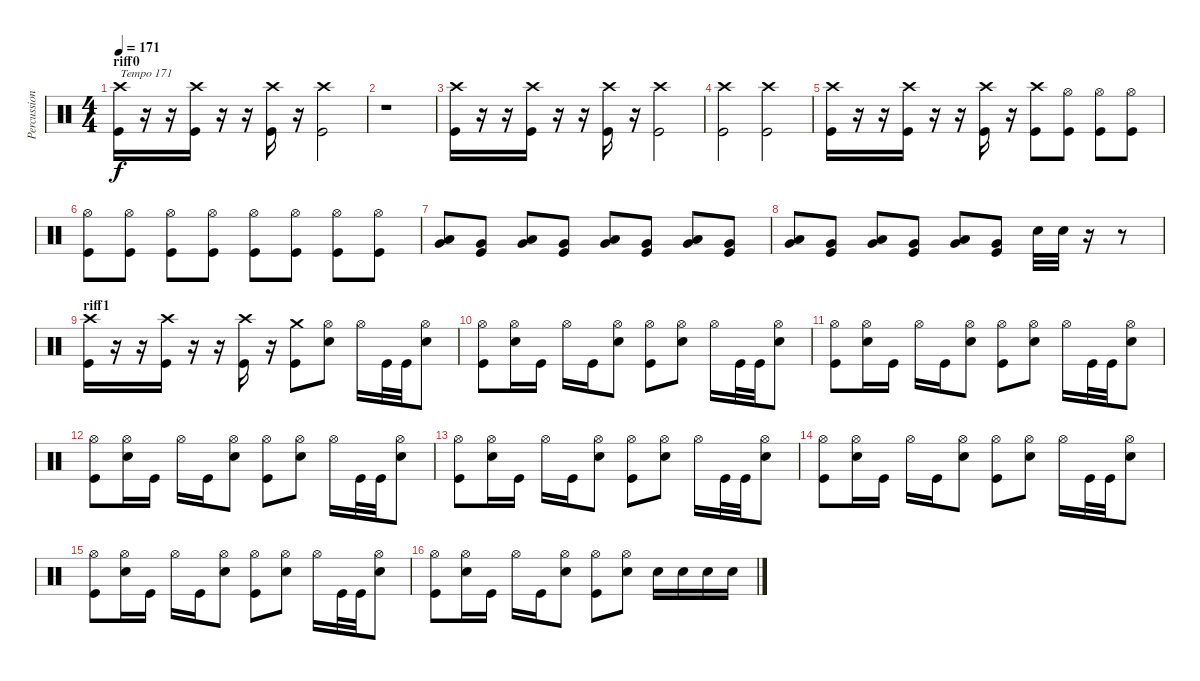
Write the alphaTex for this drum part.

\track ("Percussion" "Percussion") {instrument percussion}
\staff {score}
\articulation defaults
\ts (4 4)
\section ("" "riff0")
\tempo 171
\clef neutral
\ks c
("Kick (hit)" "Crash high (hit)").16{txt "Tempo 171" dy f} r.16 r.16 ("Kick (hit)" "Crash high (hit)").16 r.16 r.16 ("Kick (hit)" "Crash high (hit)").16 r.16 ("Kick (hit)" "Crash high (hit)").2 |
r.1 |
("Kick (hit)" "Crash high (hit)").16 r.16 r.16 ("Kick (hit)" "Crash high (hit)").16 r.16 r.16 ("Kick (hit)" "Crash high (hit)").16 r.16 ("Kick (hit)" "Crash high (hit)").2 |
("Kick (hit)" "Crash high (hit)").2 ("Kick (hit)" "Crash high (hit)").2 |
("Kick (hit)" "Crash high (hit)").16 r.16 r.16 ("Kick (hit)" "Crash high (hit)").16 r.16 r.16 ("Kick (hit)" "Crash high (hit)").16 r.16 ("Kick (hit)" "Crash high (hit)").8 ("Kick (hit)" "Hi-Hat (open)").8 ("Kick (hit)" "Hi-Hat (open)").8 ("Kick (hit)" "Hi-Hat (open)").8 |
("Kick (hit)" "Hi-Hat (open)").8 ("Kick (hit)" "Hi-Hat (open)").8 ("Kick (hit)" "Hi-Hat (open)").8 ("Kick (hit)" "Hi-Hat (open)").8 ("Kick (hit)" "Hi-Hat (open)").8 ("Kick (hit)" "Hi-Hat (open)").8 ("Kick (hit)" "Hi-Hat (open)").8 ("Kick (hit)" "Hi-Hat (open)").8 |
("Very Low Tom (hit)" "Low Tom (hit)").8 ("Kick (hit)" "Very Low Tom (hit)").8 ("Very Low Tom (hit)" "Low Tom (hit)").8 ("Kick (hit)" "Very Low Tom (hit)").8 ("Very Low Tom (hit)" "Low Tom (hit)").8 ("Kick (hit)" "Very Low Tom (hit)").8 ("Very Low Tom (hit)" "Low Tom (hit)").8 ("Kick (hit)" "Very Low Tom (hit)").8 |
("Very Low Tom (hit)" "Low Tom (hit)").8 ("Kick (hit)" "Very Low Tom (hit)").8 ("Very Low Tom (hit)" "Low Tom (hit)").8 ("Kick (hit)" "Very Low Tom (hit)").8 ("Very Low Tom (hit)" "Low Tom (hit)").8 ("Kick (hit)" "Very Low Tom (hit)").8 "Snare (hit) 2".32 "Snare (hit) 2".32 r.16 r.8 |
\section ("" "riff1")
("Kick (hit)" "Crash high (hit)").16 r.16 r.16 ("Kick (hit)" "Crash high (hit)").16 r.16 r.16 ("Kick (hit)" "Crash high (hit)").16 r.16 ("Kick (hit)" "Crash medium (hit)").8 ("Hi-Hat (open)" "Snare (hit) 2").8 "Hi-Hat (open)".16 "Kick (hit)".32 "Kick (hit)".32 ("Hi-Hat (open)" "Snare (hit) 2").8 |
("Kick (hit)" "Hi-Hat (open)").8 ("Hi-Hat (open)" "Snare (hit) 2").16 "Kick (hit)".16 "Hi-Hat (open)".16 "Kick (hit)".16 ("Hi-Hat (open)" "Snare (hit) 2").8 ("Kick (hit)" "Hi-Hat (open)").8 ("Hi-Hat (open)" "Snare (hit) 2").8 "Hi-Hat (open)".16 "Kick (hit)".32 "Kick (hit)".32 ("Hi-Hat (open)" "Snare (hit) 2").8 |
("Kick (hit)" "Hi-Hat (open)").8 ("Hi-Hat (open)" "Snare (hit) 2").16 "Kick (hit)".16 "Hi-Hat (open)".16 "Kick (hit)".16 ("Hi-Hat (open)" "Snare (hit) 2").8 ("Kick (hit)" "Hi-Hat (open)").8 ("Hi-Hat (open)" "Snare (hit) 2").8 "Hi-Hat (open)".16 "Kick (hit)".32 "Kick (hit)".32 ("Hi-Hat (open)" "Snare (hit) 2").8 |
("Kick (hit)" "Hi-Hat (open)").8 ("Hi-Hat (open)" "Snare (hit) 2").16 "Kick (hit)".16 "Hi-Hat (open)".16 "Kick (hit)".16 ("Hi-Hat (open)" "Snare (hit) 2").8 ("Kick (hit)" "Hi-Hat (open)").8 ("Hi-Hat (open)" "Snare (hit) 2").8 "Hi-Hat (open)".16 "Kick (hit)".32 "Kick (hit)".32 ("Hi-Hat (open)" "Snare (hit) 2").8 |
("Kick (hit)" "Hi-Hat (open)").8 ("Hi-Hat (open)" "Snare (hit) 2").16 "Kick (hit)".16 "Hi-Hat (open)".16 "Kick (hit)".16 ("Hi-Hat (open)" "Snare (hit) 2").8 ("Kick (hit)" "Hi-Hat (open)").8 ("Hi-Hat (open)" "Snare (hit) 2").8 "Hi-Hat (open)".16 "Kick (hit)".32 "Kick (hit)".32 ("Hi-Hat (open)" "Snare (hit) 2").8 |
("Kick (hit)" "Hi-Hat (open)").8 ("Hi-Hat (open)" "Snare (hit) 2").16 "Kick (hit)".16 "Hi-Hat (open)".16 "Kick (hit)".16 ("Hi-Hat (open)" "Snare (hit) 2").8 ("Kick (hit)" "Hi-Hat (open)").8 ("Hi-Hat (open)" "Snare (hit) 2").8 "Hi-Hat (open)".16 "Kick (hit)".32 "Kick (hit)".32 ("Hi-Hat (open)" "Snare (hit) 2").8 |
("Kick (hit)" "Hi-Hat (open)").8 ("Hi-Hat (open)" "Snare (hit) 2").16 "Kick (hit)".16 "Hi-Hat (open)".16 "Kick (hit)".16 ("Hi-Hat (open)" "Snare (hit) 2").8 ("Kick (hit)" "Hi-Hat (open)").8 ("Hi-Hat (open)" "Snare (hit) 2").8 "Hi-Hat (open)".16 "Kick (hit)".32 "Kick (hit)".32 ("Hi-Hat (open)" "Snare (hit) 2").8 |
("Kick (hit)" "Hi-Hat (open)").8 ("Hi-Hat (open)" "Snare (hit) 2").16 "Kick (hit)".16 "Hi-Hat (open)".16 "Kick (hit)".16 ("Hi-Hat (open)" "Snare (hit) 2").8 ("Kick (hit)" "Hi-Hat (open)").8 ("Hi-Hat (open)" "Snare (hit) 2").8 "Snare (hit) 2".16 "Snare (hit) 2".16 "Snare (hit) 2".16 "Snare (hit) 2".16
